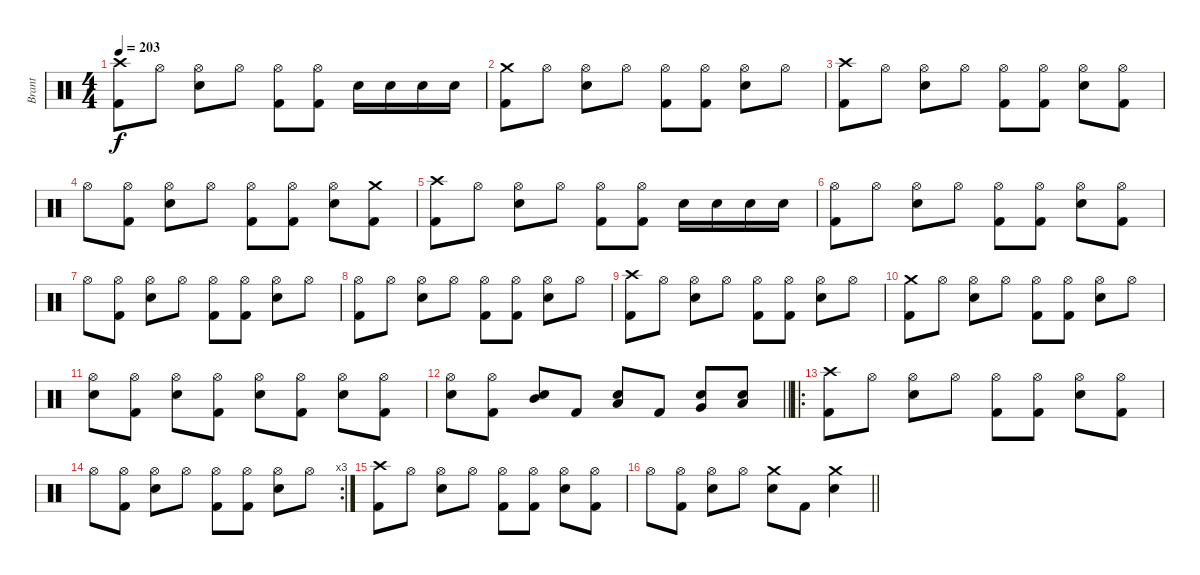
\track ("Brant" "Brant") {instrument percussion}
\staff {score}
\articulation defaults
\ts (4 4)
\tempo 203
\clef neutral
\ks c
("Crash high (hit)" "Kick (hit) 2").8{dy f} "Hi-Hat (open)".8 ("Hi-Hat (open)" "Electric Snare (hit)").8 "Hi-Hat (open)".8 ("Hi-Hat (open)" "Kick (hit) 2").8 ("Hi-Hat (open)" "Kick (hit) 2").8 "Electric Snare (hit)".16 "Electric Snare (hit)".16 "Electric Snare (hit)".16 "Electric Snare (hit)".16 |
("Crash medium (hit)" "Kick (hit) 2").8 "Hi-Hat (open)".8 ("Hi-Hat (open)" "Electric Snare (hit)").8 "Hi-Hat (open)".8 ("Hi-Hat (open)" "Kick (hit) 2").8 ("Hi-Hat (open)" "Kick (hit) 2").8 ("Hi-Hat (open)" "Electric Snare (hit)").8 "Hi-Hat (open)".8 |
("Crash high (hit)" "Kick (hit) 2").8 "Hi-Hat (open)".8 ("Hi-Hat (open)" "Electric Snare (hit)").8 "Hi-Hat (open)".8 ("Hi-Hat (open)" "Kick (hit) 2").8 ("Hi-Hat (open)" "Kick (hit) 2").8 ("Hi-Hat (open)" "Electric Snare (hit)").8 ("Hi-Hat (open)" "Kick (hit) 2").8 |
"Hi-Hat (open)".8 ("Hi-Hat (open)" "Kick (hit) 2").8 ("Hi-Hat (open)" "Electric Snare (hit)").8 "Hi-Hat (open)".8 ("Hi-Hat (open)" "Kick (hit) 2").8 ("Hi-Hat (open)" "Kick (hit) 2").8 ("Hi-Hat (open)" "Electric Snare (hit)").8 ("Crash medium (hit)" "Kick (hit) 2").8 |
("Crash high (hit)" "Kick (hit) 2").8 "Hi-Hat (open)".8 ("Hi-Hat (open)" "Electric Snare (hit)").8 "Hi-Hat (open)".8 ("Hi-Hat (open)" "Kick (hit) 2").8 ("Hi-Hat (open)" "Kick (hit) 2").8 "Electric Snare (hit)".16 "Electric Snare (hit)".16 "Electric Snare (hit)".16 "Electric Snare (hit)".16 |
("Hi-Hat (open)" "Kick (hit) 2").8 "Hi-Hat (open)".8 ("Hi-Hat (open)" "Electric Snare (hit)").8 "Hi-Hat (open)".8 ("Hi-Hat (open)" "Kick (hit) 2").8 ("Hi-Hat (open)" "Kick (hit) 2").8 ("Hi-Hat (open)" "Electric Snare (hit)").8 ("Hi-Hat (open)" "Kick (hit) 2").8 |
"Hi-Hat (open)".8 ("Hi-Hat (open)" "Kick (hit) 2").8 ("Hi-Hat (open)" "Electric Snare (hit)").8 "Hi-Hat (open)".8 ("Hi-Hat (open)" "Kick (hit) 2").8 ("Hi-Hat (open)" "Kick (hit) 2").8 ("Hi-Hat (open)" "Electric Snare (hit)").8 "Hi-Hat (open)".8 |
("Hi-Hat (open)" "Kick (hit) 2").8 "Hi-Hat (open)".8 ("Hi-Hat (open)" "Electric Snare (hit)").8 "Hi-Hat (open)".8 ("Hi-Hat (open)" "Kick (hit) 2").8 ("Hi-Hat (open)" "Kick (hit) 2").8 ("Hi-Hat (open)" "Electric Snare (hit)").8 "Hi-Hat (open)".8 |
("Crash high (hit)" "Kick (hit) 2").8 "Hi-Hat (open)".8 ("Hi-Hat (open)" "Electric Snare (hit)").8 "Hi-Hat (open)".8 ("Hi-Hat (open)" "Kick (hit) 2").8 ("Hi-Hat (open)" "Kick (hit) 2").8 ("Hi-Hat (open)" "Electric Snare (hit)").8 "Hi-Hat (open)".8 |
("Crash medium (hit)" "Kick (hit) 2").8 "Hi-Hat (open)".8 ("Hi-Hat (open)" "Electric Snare (hit)").8 "Hi-Hat (open)".8 ("Hi-Hat (open)" "Kick (hit) 2").8 ("Hi-Hat (open)" "Kick (hit) 2").8 ("Hi-Hat (open)" "Electric Snare (hit)").8 "Hi-Hat (open)".8 |
("Hi-Hat (open)" "Electric Snare (hit)").8 ("Hi-Hat (open)" "Kick (hit) 2").8 ("Hi-Hat (open)" "Electric Snare (hit)").8 ("Hi-Hat (open)" "Kick (hit) 2").8 ("Hi-Hat (open)" "Electric Snare (hit)").8 ("Hi-Hat (open)" "Kick (hit) 2").8 ("Hi-Hat (open)" "Electric Snare (hit)").8 ("Hi-Hat (open)" "Kick (hit) 2").8 |
\barLineRight lightlight
("Hi-Hat (open)" "Electric Snare (hit)").8 ("Hi-Hat (open)" "Kick (hit) 2").8 ("Mid Tom (hit)" "Electric Snare (hit)").8 "Kick (hit) 2".8 ("Low Tom (hit)" "Electric Snare (hit)").8 "Kick (hit) 2".8 ("Electric Snare (hit)" "Very Low Tom (hit)").8 ("Electric Snare (hit)" "Low Floor Tom (hit)").8 |
\ro
\section ("" "")
("Crash high (hit)" "Kick (hit) 2").8 "Hi-Hat (open)".8 ("Hi-Hat (open)" "Electric Snare (hit)").8 "Hi-Hat (open)".8 ("Hi-Hat (open)" "Kick (hit) 2").8 ("Hi-Hat (open)" "Kick (hit) 2").8 ("Hi-Hat (open)" "Electric Snare (hit)").8 ("Hi-Hat (open)" "Kick (hit) 2").8 |
\rc 3 "Hi-Hat (open)".8
("Hi-Hat (open)" "Kick (hit) 2").8 ("Hi-Hat (open)" "Electric Snare (hit)").8 "Hi-Hat (open)".8 ("Hi-Hat (open)" "Kick (hit) 2").8 ("Hi-Hat (open)" "Kick (hit) 2").8 ("Hi-Hat (open)" "Electric Snare (hit)").8 "Hi-Hat (open)".8 |
("Crash high (hit)" "Kick (hit) 2").8 "Hi-Hat (open)".8 ("Hi-Hat (open)" "Electric Snare (hit)").8 "Hi-Hat (open)".8 ("Hi-Hat (open)" "Kick (hit) 2").8 ("Hi-Hat (open)" "Kick (hit) 2").8 ("Hi-Hat (open)" "Electric Snare (hit)").8 ("Hi-Hat (open)" "Kick (hit) 2").8 |
\barLineRight lightlight "Hi-Hat (open)".8
("Hi-Hat (open)" "Kick (hit) 2").8 ("Hi-Hat (open)" "Electric Snare (hit)").8 "Hi-Hat (open)".8 ("Crash medium (hit)" "Electric Snare (hit)").8 "Kick (hit) 2".8 ("Crash medium (hit)" "Electric Snare (hit)").4
